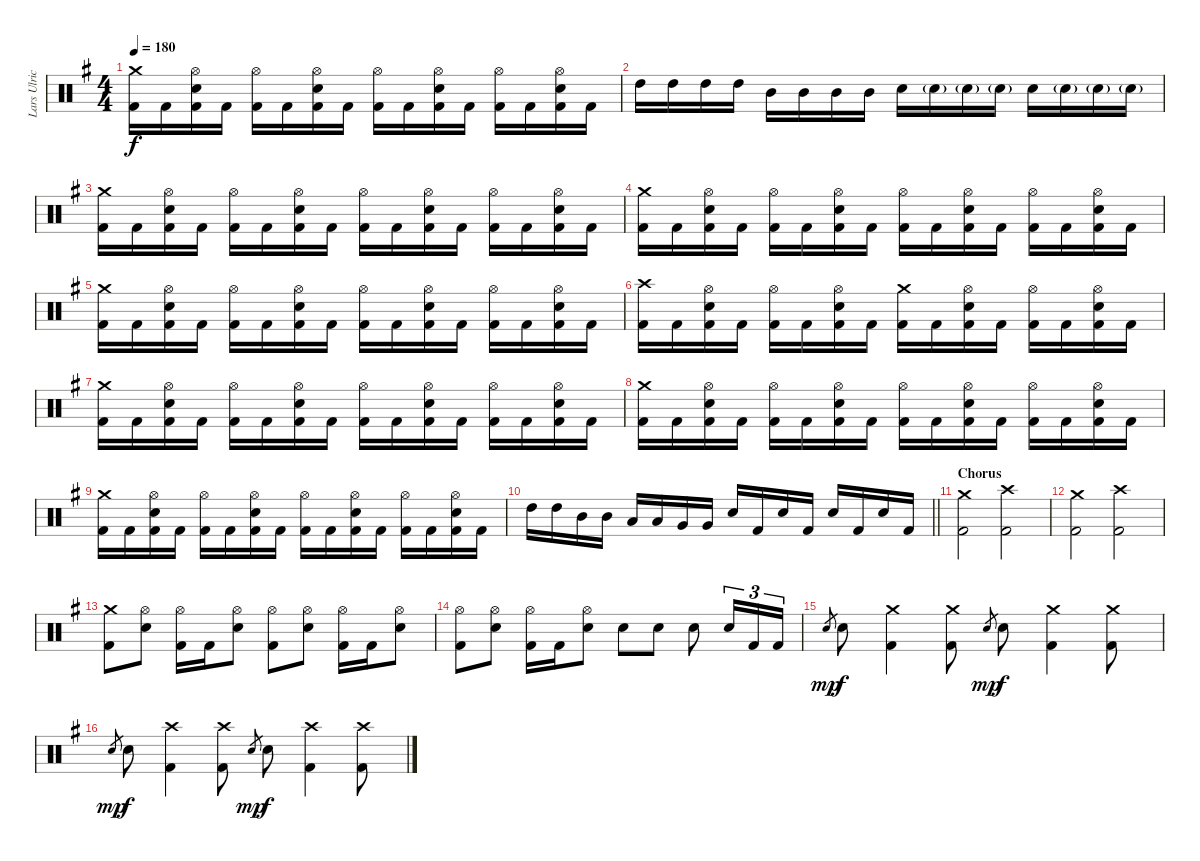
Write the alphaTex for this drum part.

\track ("Lars Ulrich" "Lars Ulric") {instrument percussion}
\staff {score}
\articulation defaults
\ts (4 4)
\tempo 180
\clef neutral
\ks eminor
("Crash medium (hit)" "Kick (hit) 2").16{dy f} "Kick (hit) 2".16 ("Hi-Hat (open)" "Snare (hit) 2" "Kick (hit) 2").16 "Kick (hit) 2".16 ("Hi-Hat (open)" "Kick (hit) 2").16 "Kick (hit) 2".16 ("Hi-Hat (open)" "Snare (hit) 2" "Kick (hit) 2").16 "Kick (hit) 2".16 ("Hi-Hat (open)" "Kick (hit) 2").16 "Kick (hit) 2".16 ("Hi-Hat (open)" "Snare (hit) 2" "Kick (hit) 2").16 "Kick (hit) 2".16 ("Hi-Hat (open)" "Kick (hit) 2").16 "Kick (hit) 2".16 ("Hi-Hat (open)" "Snare (hit) 2" "Kick (hit) 2").16 "Kick (hit) 2".16 |
"High Tom (hit)".16 "High Tom (hit)".16 "High Tom (hit)".16 "High Tom (hit)".16 "Mid Tom (hit)".16 "Mid Tom (hit)".16 "Mid Tom (hit)".16 "Mid Tom (hit)".16 "Snare (hit) 2".16 "Snare (hit) 2"{g}.16 "Snare (hit) 2"{g}.16 "Snare (hit) 2"{g}.16 "Snare (hit) 2".16 "Snare (hit) 2"{g}.16 "Snare (hit) 2"{g}.16 "Snare (hit) 2"{g}.16 |
("Crash medium (hit)" "Kick (hit) 2").16 "Kick (hit) 2".16 ("Hi-Hat (open)" "Snare (hit) 2" "Kick (hit) 2").16 "Kick (hit) 2".16 ("Hi-Hat (open)" "Kick (hit) 2").16 "Kick (hit) 2".16 ("Hi-Hat (open)" "Snare (hit) 2" "Kick (hit) 2").16 "Kick (hit) 2".16 ("Hi-Hat (open)" "Kick (hit) 2").16 "Kick (hit) 2".16 ("Hi-Hat (open)" "Snare (hit) 2" "Kick (hit) 2").16 "Kick (hit) 2".16 ("Hi-Hat (open)" "Kick (hit) 2").16 "Kick (hit) 2".16 ("Hi-Hat (open)" "Snare (hit) 2" "Kick (hit) 2").16 "Kick (hit) 2".16 |
("Crash medium (hit)" "Kick (hit) 2").16 "Kick (hit) 2".16 ("Hi-Hat (open)" "Snare (hit) 2" "Kick (hit) 2").16 "Kick (hit) 2".16 ("Hi-Hat (open)" "Kick (hit) 2").16 "Kick (hit) 2".16 ("Hi-Hat (open)" "Snare (hit) 2" "Kick (hit) 2").16 "Kick (hit) 2".16 ("Hi-Hat (open)" "Kick (hit) 2").16 "Kick (hit) 2".16 ("Hi-Hat (open)" "Snare (hit) 2" "Kick (hit) 2").16 "Kick (hit) 2".16 ("Hi-Hat (open)" "Kick (hit) 2").16 "Kick (hit) 2".16 ("Hi-Hat (open)" "Snare (hit) 2" "Kick (hit) 2").16 "Kick (hit) 2".16 |
("Crash medium (hit)" "Kick (hit) 2").16 "Kick (hit) 2".16 ("Hi-Hat (open)" "Snare (hit) 2" "Kick (hit) 2").16 "Kick (hit) 2".16 ("Hi-Hat (open)" "Kick (hit) 2").16 "Kick (hit) 2".16 ("Hi-Hat (open)" "Snare (hit) 2" "Kick (hit) 2").16 "Kick (hit) 2".16 ("Hi-Hat (open)" "Kick (hit) 2").16 "Kick (hit) 2".16 ("Hi-Hat (open)" "Snare (hit) 2" "Kick (hit) 2").16 "Kick (hit) 2".16 ("Hi-Hat (open)" "Kick (hit) 2").16 "Kick (hit) 2".16 ("Hi-Hat (open)" "Snare (hit) 2" "Kick (hit) 2").16 "Kick (hit) 2".16 |
("Crash high (hit)" "Kick (hit) 2").16 "Kick (hit) 2".16 ("Hi-Hat (open)" "Snare (hit) 2" "Kick (hit) 2").16 "Kick (hit) 2".16 ("Hi-Hat (open)" "Kick (hit) 2").16 "Kick (hit) 2".16 ("Hi-Hat (open)" "Snare (hit) 2" "Kick (hit) 2").16 "Kick (hit) 2".16 ("Crash medium (hit)" "Kick (hit) 2").16 "Kick (hit) 2".16 ("Hi-Hat (open)" "Snare (hit) 2" "Kick (hit) 2").16 "Kick (hit) 2".16 ("Hi-Hat (open)" "Kick (hit) 2").16 "Kick (hit) 2".16 ("Hi-Hat (open)" "Snare (hit) 2" "Kick (hit) 2").16 "Kick (hit) 2".16 |
("Crash medium (hit)" "Kick (hit) 2").16 "Kick (hit) 2".16 ("Hi-Hat (open)" "Snare (hit) 2" "Kick (hit) 2").16 "Kick (hit) 2".16 ("Hi-Hat (open)" "Kick (hit) 2").16 "Kick (hit) 2".16 ("Hi-Hat (open)" "Snare (hit) 2" "Kick (hit) 2").16 "Kick (hit) 2".16 ("Hi-Hat (open)" "Kick (hit) 2").16 "Kick (hit) 2".16 ("Hi-Hat (open)" "Snare (hit) 2" "Kick (hit) 2").16 "Kick (hit) 2".16 ("Hi-Hat (open)" "Kick (hit) 2").16 "Kick (hit) 2".16 ("Hi-Hat (open)" "Snare (hit) 2" "Kick (hit) 2").16 "Kick (hit) 2".16 |
("Crash medium (hit)" "Kick (hit) 2").16 "Kick (hit) 2".16 ("Hi-Hat (open)" "Snare (hit) 2" "Kick (hit) 2").16 "Kick (hit) 2".16 ("Hi-Hat (open)" "Kick (hit) 2").16 "Kick (hit) 2".16 ("Hi-Hat (open)" "Snare (hit) 2" "Kick (hit) 2").16 "Kick (hit) 2".16 ("Hi-Hat (open)" "Kick (hit) 2").16 "Kick (hit) 2".16 ("Hi-Hat (open)" "Snare (hit) 2" "Kick (hit) 2").16 "Kick (hit) 2".16 ("Hi-Hat (open)" "Kick (hit) 2").16 "Kick (hit) 2".16 ("Hi-Hat (open)" "Snare (hit) 2" "Kick (hit) 2").16 "Kick (hit) 2".16 |
("Crash medium (hit)" "Kick (hit) 2").16 "Kick (hit) 2".16 ("Hi-Hat (open)" "Snare (hit) 2" "Kick (hit) 2").16 "Kick (hit) 2".16 ("Hi-Hat (open)" "Kick (hit) 2").16 "Kick (hit) 2".16 ("Hi-Hat (open)" "Snare (hit) 2" "Kick (hit) 2").16 "Kick (hit) 2".16 ("Hi-Hat (open)" "Kick (hit) 2").16 "Kick (hit) 2".16 ("Hi-Hat (open)" "Snare (hit) 2" "Kick (hit) 2").16 "Kick (hit) 2".16 ("Hi-Hat (open)" "Kick (hit) 2").16 "Kick (hit) 2".16 ("Hi-Hat (open)" "Snare (hit) 2" "Kick (hit) 2").16 "Kick (hit) 2".16 |
\barLineRight lightlight "High Tom (hit)".16 "High Tom (hit)".16 "Mid Tom (hit)".16 "Mid Tom (hit)".16 "Low Tom (hit)".16 "Low Tom (hit)".16 "Very Low Tom (hit)".16 "Very Low Tom (hit)".16 "Snare (hit) 2".16 "Kick (hit) 2".16 "Snare (hit) 2".16 "Kick (hit) 2".16 "Snare (hit) 2".16 "Kick (hit) 2".16 "Snare (hit) 2".16 "Kick (hit) 2".16
|
\section ("" "Chorus")
("Crash medium (hit)" "Kick (hit) 2").2 ("Crash high (hit)" "Kick (hit) 2").2 |
("Crash medium (hit)" "Kick (hit) 2").2 ("Crash high (hit)" "Kick (hit) 2").2 |
("Crash medium (hit)" "Kick (hit) 2").8 ("Hi-Hat (open)" "Snare (hit) 2").8 ("Hi-Hat (open)" "Kick (hit) 2").16 "Kick (hit) 2".16 ("Hi-Hat (open)" "Snare (hit) 2").8 ("Hi-Hat (open)" "Kick (hit) 2").8 ("Hi-Hat (open)" "Snare (hit) 2").8 ("Hi-Hat (open)" "Kick (hit) 2").16 "Kick (hit) 2".16 ("Hi-Hat (open)" "Snare (hit) 2").8 |
("Hi-Hat (open)" "Kick (hit) 2").8 ("Hi-Hat (open)" "Snare (hit) 2").8 ("Hi-Hat (open)" "Kick (hit) 2").16 "Kick (hit) 2".16 ("Hi-Hat (open)" "Snare (hit) 2").8 "Snare (hit) 2".8 "Snare (hit) 2".8 "Snare (hit) 2".8 "Snare (hit) 2".16{tu (3 2)} "Kick (hit) 2".16{tu (3 2)} "Kick (hit) 2".16{tu (3 2)} |
"Snare (hit)".8{gr dy mp} "Snare (hit) 2".8{dy f} ("Crash medium (hit)" "Kick (hit) 2").4 ("Crash medium (hit)" "Kick (hit) 2").8 "Snare (hit)".8{gr dy mp} "Snare (hit) 2".8{dy f} ("Crash medium (hit)" "Kick (hit) 2").4 ("Crash medium (hit)" "Kick (hit) 2").8 |
"Snare (hit)".8{gr dy mp} "Snare (hit) 2".8{dy f} ("Crash high (hit)" "Kick (hit) 2").4 ("Crash high (hit)" "Kick (hit) 2").8 "Snare (hit)".8{gr dy mp} "Snare (hit) 2".8{dy f} ("Crash high (hit)" "Kick (hit) 2").4 ("Crash high (hit)" "Kick (hit) 2").8
